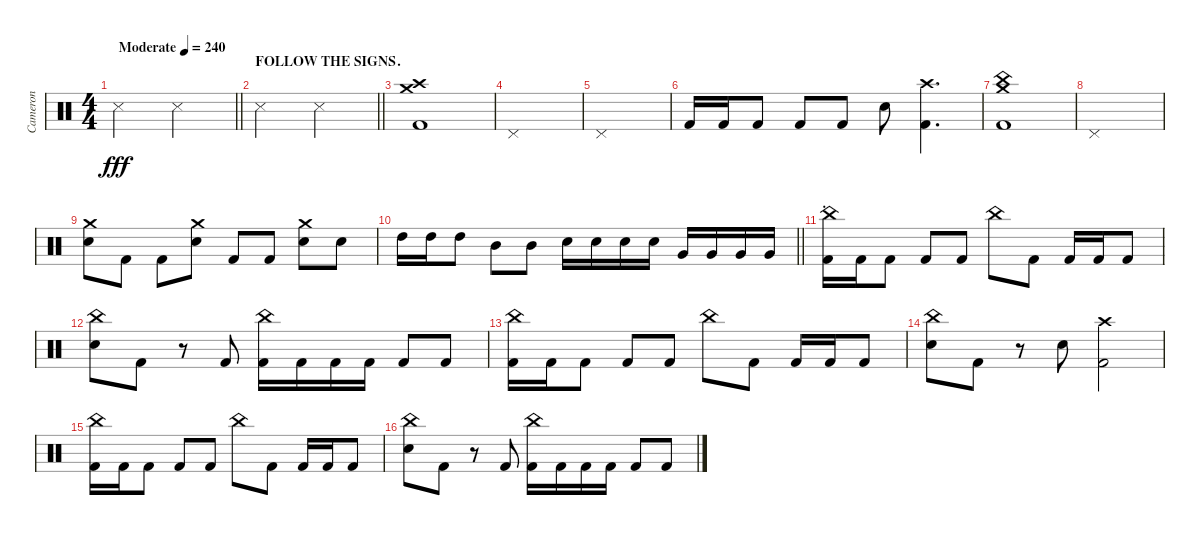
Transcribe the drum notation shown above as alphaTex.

\track ("Cameron" "Cameron") {instrument percussion}
\staff {score}
\articulation defaults
\ts (4 4)
\tempo (240 "Moderate")
\clef neutral
\barLineRight lightlight
\ks c "Snare (side stick) 3".2{dy fff} "Snare (side stick) 3".2
|
\section ("" "FOLLOW THE SIGNS")
\barLineRight lightlight "Snare (side stick) 3".2 "Snare (side stick) 3".2
|
\section ("" ".")
("Crash high (hit)" "Crash medium (hit)" "Kick (hit) 2").1 |
"Pedal Hi-Hat (hit)".1 |
"Pedal Hi-Hat (hit)".1 |
"Kick (hit) 2".16 "Kick (hit) 2".16 "Kick (hit) 2".8 "Kick (hit) 2".8 "Kick (hit) 2".8 "Electric Snare (hit)".8 ("Crash high (hit)" "Kick (hit) 2").4{d} |
("China (hit)" "Crash medium (hit)" "Kick (hit) 2").1 |
"Pedal Hi-Hat (hit)".1 |
("Crash medium (hit)" "Electric Snare (hit)").8 "Kick (hit) 2".8 "Kick (hit) 2".8 ("Crash medium (hit)" "Electric Snare (hit)").8 "Kick (hit) 2".8 "Kick (hit) 2".8 ("Crash medium (hit)" "Electric Snare (hit)").8 "Electric Snare (hit)".8 |
\barLineRight lightlight "High Tom (hit)".16 "High Tom (hit)".16 "High Tom (hit)".8 "Mid Tom (hit)".8 "Mid Tom (hit)".8 "Electric Snare (hit)".16 "Electric Snare (hit)".16 "Electric Snare (hit)".16 "Electric Snare (hit)".16 "Very Low Tom (hit)".16 "Very Low Tom (hit)".16 "Very Low Tom (hit)".16 "Very Low Tom (hit)".16
|
\section ("" ".")
("China (hit)" "Kick (hit) 2").16 "Kick (hit) 2".16 "Kick (hit) 2".8 "Kick (hit) 2".8 "Kick (hit) 2".8 "China (hit)".8 "Kick (hit) 2".8 "Kick (hit) 2".16 "Kick (hit) 2".16 "Kick (hit) 2".8 |
("China (hit)" "Electric Snare (hit)").8 "Kick (hit) 2".8 r.8 "Kick (hit) 2".8 ("China (hit)" "Kick (hit) 2").16 "Kick (hit) 2".16 "Kick (hit) 2".16 "Kick (hit) 2".16 "Kick (hit) 2".8 "Kick (hit) 2".8 |
("China (hit)" "Kick (hit) 2").16 "Kick (hit) 2".16 "Kick (hit) 2".8 "Kick (hit) 2".8 "Kick (hit) 2".8 "China (hit)".8 "Kick (hit) 2".8 "Kick (hit) 2".16 "Kick (hit) 2".16 "Kick (hit) 2".8 |
("China (hit)" "Electric Snare (hit)").8 "Kick (hit) 2".8 r.8 "Electric Snare (hit)".8 ("Crash high (hit)" "Kick (hit) 2").2 |
("China (hit)" "Kick (hit) 2").16 "Kick (hit) 2".16 "Kick (hit) 2".8 "Kick (hit) 2".8 "Kick (hit) 2".8 "China (hit)".8 "Kick (hit) 2".8 "Kick (hit) 2".16 "Kick (hit) 2".16 "Kick (hit) 2".8 |
("China (hit)" "Electric Snare (hit)").8 "Kick (hit) 2".8 r.8 "Kick (hit) 2".8 ("China (hit)" "Kick (hit) 2").16 "Kick (hit) 2".16 "Kick (hit) 2".16 "Kick (hit) 2".16 "Kick (hit) 2".8 "Kick (hit) 2".8
